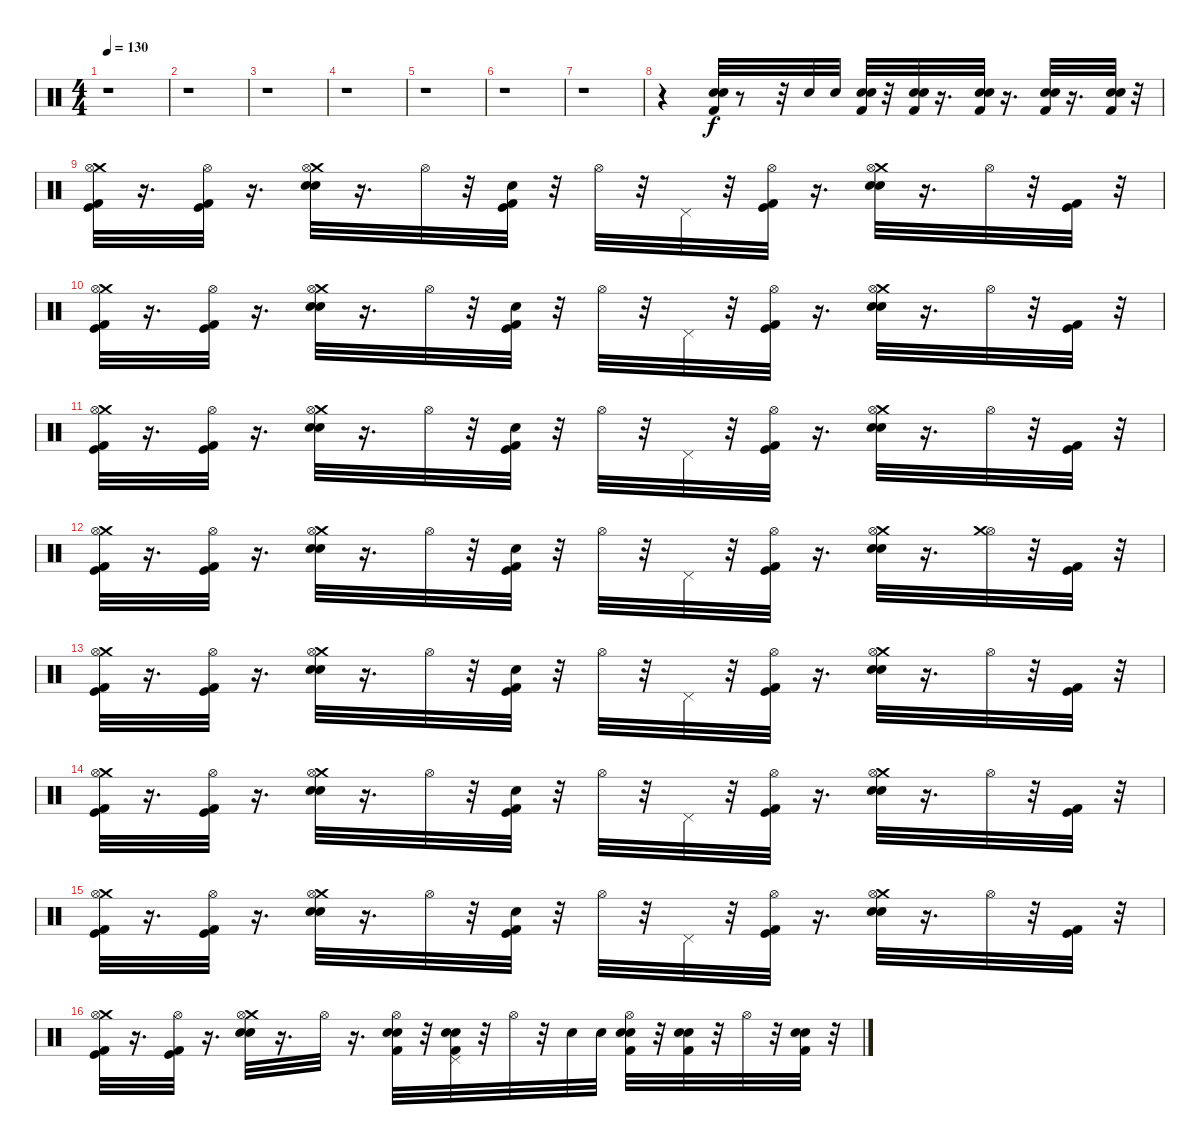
\track "" {instrument percussion}
\staff {score}
\articulation defaults
\ts (4 4)
\tempo 130
\clef neutral
\ks c
r.1{dy f} |
r.1 |
r.1 |
r.1 |
r.1 |
r.1 |
r.1 |
r.4 ("Electric Snare (hit)" "Snare (hit) 2" "Kick (hit) 2").32 r.8 r.32 "Electric Snare (hit)".32 "Electric Snare (hit)".32 ("Snare (hit) 2" "Electric Snare (hit)" "Kick (hit) 2").32 r.32 ("Electric Snare (hit)" "Snare (hit) 2" "Kick (hit) 2").32 r.16{d} ("Electric Snare (hit)" "Snare (hit) 2" "Kick (hit) 2").32 r.16{d} ("Electric Snare (hit)" "Snare (hit) 2" "Kick (hit) 2").32 r.16{d} ("Electric Snare (hit)" "Snare (hit) 2" "Kick (hit) 2").32 r.32 |
("Kick (hit) 2" "Kick (hit)" "Crash medium (hit)" "Hi-Hat (open)").32 r.16{d} ("Kick (hit) 2" "Kick (hit)" "Hi-Hat (open)").32 r.16{d} ("Snare (hit) 2" "Electric Snare (hit)" "Crash medium (hit)" "Hi-Hat (open)").32 r.16{d} "Hi-Hat (open)".32 r.32 ("Kick (hit) 2" "Kick (hit)" "Electric Snare (hit)").32 r.32 "Hi-Hat (open)".32 r.32 "Pedal Hi-Hat (hit)".32 r.32 ("Kick (hit) 2" "Kick (hit)" "Hi-Hat (open)").32 r.16{d} ("Snare (hit) 2" "Electric Snare (hit)" "Crash medium (hit)" "Hi-Hat (open)").32 r.16{d} "Hi-Hat (open)".32 r.32 ("Kick (hit) 2" "Kick (hit)").32 r.32 |
("Kick (hit) 2" "Kick (hit)" "Crash medium (hit)" "Hi-Hat (open)").32 r.16{d} ("Kick (hit) 2" "Kick (hit)" "Hi-Hat (open)").32 r.16{d} ("Snare (hit) 2" "Electric Snare (hit)" "Crash medium (hit)" "Hi-Hat (open)").32 r.16{d} "Hi-Hat (open)".32 r.32 ("Kick (hit) 2" "Kick (hit)" "Electric Snare (hit)").32 r.32 "Hi-Hat (open)".32 r.32 "Pedal Hi-Hat (hit)".32 r.32 ("Kick (hit) 2" "Kick (hit)" "Hi-Hat (open)").32 r.16{d} ("Snare (hit) 2" "Electric Snare (hit)" "Crash medium (hit)" "Hi-Hat (open)").32 r.16{d} "Hi-Hat (open)".32 r.32 ("Kick (hit) 2" "Kick (hit)").32 r.32 |
("Kick (hit) 2" "Kick (hit)" "Crash medium (hit)" "Hi-Hat (open)").32 r.16{d} ("Kick (hit) 2" "Kick (hit)" "Hi-Hat (open)").32 r.16{d} ("Snare (hit) 2" "Electric Snare (hit)" "Crash medium (hit)" "Hi-Hat (open)").32 r.16{d} "Hi-Hat (open)".32 r.32 ("Kick (hit) 2" "Kick (hit)" "Electric Snare (hit)").32 r.32 "Hi-Hat (open)".32 r.32 "Pedal Hi-Hat (hit)".32 r.32 ("Kick (hit) 2" "Kick (hit)" "Hi-Hat (open)").32 r.16{d} ("Snare (hit) 2" "Electric Snare (hit)" "Crash medium (hit)" "Hi-Hat (open)").32 r.16{d} "Hi-Hat (open)".32 r.32 ("Kick (hit) 2" "Kick (hit)").32 r.32 |
("Kick (hit) 2" "Kick (hit)" "Crash medium (hit)" "Hi-Hat (open)").32 r.16{d} ("Kick (hit) 2" "Kick (hit)" "Hi-Hat (open)").32 r.16{d} ("Snare (hit) 2" "Electric Snare (hit)" "Crash medium (hit)" "Hi-Hat (open)").32 r.16{d} "Hi-Hat (open)".32 r.32 ("Kick (hit) 2" "Kick (hit)" "Electric Snare (hit)").32 r.32 "Hi-Hat (open)".32 r.32 "Pedal Hi-Hat (hit)".32 r.32 ("Kick (hit) 2" "Kick (hit)" "Hi-Hat (open)").32 r.16{d} ("Snare (hit) 2" "Electric Snare (hit)" "Crash medium (hit)" "Hi-Hat (open)").32 r.16{d} ("Hi-Hat (open)" "Crash medium (hit)").32 r.32 ("Kick (hit) 2" "Kick (hit)").32 r.32 |
("Kick (hit) 2" "Kick (hit)" "Crash medium (hit)" "Hi-Hat (open)").32 r.16{d} ("Kick (hit) 2" "Kick (hit)" "Hi-Hat (open)").32 r.16{d} ("Snare (hit) 2" "Electric Snare (hit)" "Crash medium (hit)" "Hi-Hat (open)").32 r.16{d} "Hi-Hat (open)".32 r.32 ("Kick (hit) 2" "Kick (hit)" "Electric Snare (hit)").32 r.32 "Hi-Hat (open)".32 r.32 "Pedal Hi-Hat (hit)".32 r.32 ("Kick (hit) 2" "Kick (hit)" "Hi-Hat (open)").32 r.16{d} ("Snare (hit) 2" "Electric Snare (hit)" "Crash medium (hit)" "Hi-Hat (open)").32 r.16{d} "Hi-Hat (open)".32 r.32 ("Kick (hit) 2" "Kick (hit)").32 r.32 |
("Kick (hit) 2" "Kick (hit)" "Crash medium (hit)" "Hi-Hat (open)").32 r.16{d} ("Kick (hit) 2" "Kick (hit)" "Hi-Hat (open)").32 r.16{d} ("Snare (hit) 2" "Electric Snare (hit)" "Crash medium (hit)" "Hi-Hat (open)").32 r.16{d} "Hi-Hat (open)".32 r.32 ("Kick (hit) 2" "Kick (hit)" "Electric Snare (hit)").32 r.32 "Hi-Hat (open)".32 r.32 "Pedal Hi-Hat (hit)".32 r.32 ("Kick (hit) 2" "Kick (hit)" "Hi-Hat (open)").32 r.16{d} ("Snare (hit) 2" "Electric Snare (hit)" "Crash medium (hit)" "Hi-Hat (open)").32 r.16{d} "Hi-Hat (open)".32 r.32 ("Kick (hit) 2" "Kick (hit)").32 r.32 |
("Kick (hit) 2" "Kick (hit)" "Crash medium (hit)" "Hi-Hat (open)").32 r.16{d} ("Kick (hit) 2" "Kick (hit)" "Hi-Hat (open)").32 r.16{d} ("Snare (hit) 2" "Electric Snare (hit)" "Crash medium (hit)" "Hi-Hat (open)").32 r.16{d} "Hi-Hat (open)".32 r.32 ("Kick (hit) 2" "Kick (hit)" "Electric Snare (hit)").32 r.32 "Hi-Hat (open)".32 r.32 "Pedal Hi-Hat (hit)".32 r.32 ("Kick (hit) 2" "Kick (hit)" "Hi-Hat (open)").32 r.16{d} ("Snare (hit) 2" "Electric Snare (hit)" "Crash medium (hit)" "Hi-Hat (open)").32 r.16{d} "Hi-Hat (open)".32 r.32 ("Kick (hit) 2" "Kick (hit)").32 r.32 |
("Kick (hit) 2" "Kick (hit)" "Crash medium (hit)" "Hi-Hat (open)").32 r.16{d} ("Kick (hit) 2" "Kick (hit)" "Hi-Hat (open)").32 r.16{d} ("Snare (hit) 2" "Electric Snare (hit)" "Crash medium (hit)" "Hi-Hat (open)").32 r.16{d} "Hi-Hat (open)".32 r.16{d} ("Hi-Hat (open)" "Electric Snare (hit)" "Snare (hit) 2" "Kick (hit) 2").32 r.32 ("Electric Snare (hit)" "Snare (hit) 2" "Kick (hit) 2" "Pedal Hi-Hat (hit)").32 r.32 "Hi-Hat (open)".32 r.32 "Electric Snare (hit)".32 "Electric Snare (hit)".32 ("Hi-Hat (open)" "Snare (hit) 2" "Electric Snare (hit)" "Kick (hit) 2").32 r.32 ("Electric Snare (hit)" "Snare (hit) 2" "Kick (hit) 2").32 r.32 "Hi-Hat (open)".32 r.32 ("Electric Snare (hit)" "Snare (hit) 2" "Kick (hit) 2").32 r.32
